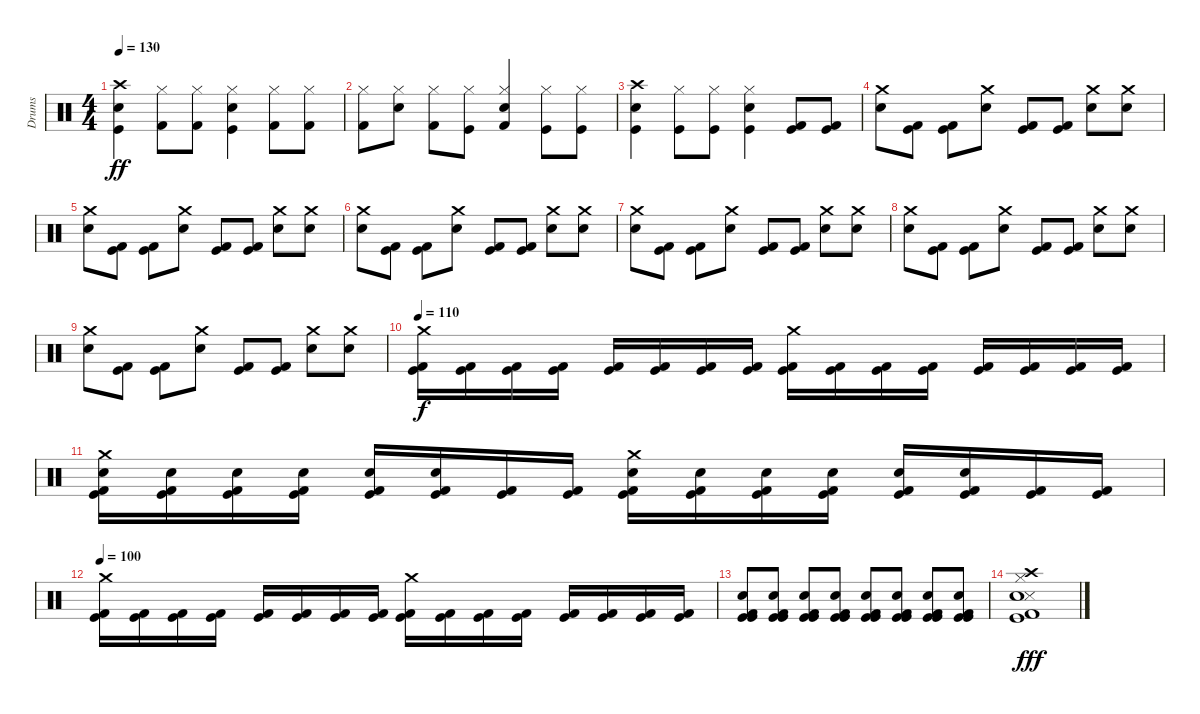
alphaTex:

\track ("Drums" "Drums") {instrument percussion}
\staff {score}
\articulation defaults
\ts (4 4)
\tempo 130
\clef neutral
\ks c
("Crash high (hit)" "Snare (hit) 2" "Kick (hit)").4{dy ff} ("Hi-Hat (closed)" "Kick (hit) 2").8 ("Hi-Hat (closed)" "Kick (hit) 2").8 ("Hi-Hat (closed)" "Snare (hit) 2" "Kick (hit)").4 ("Hi-Hat (closed)" "Kick (hit) 2").8 ("Hi-Hat (closed)" "Kick (hit) 2").8 |
("Hi-Hat (closed)" "Kick (hit) 2").8 ("Hi-Hat (closed)" "Snare (hit) 2").8 ("Hi-Hat (closed)" "Kick (hit) 2").8 ("Hi-Hat (closed)" "Kick (hit)").8 ("Hi-Hat (closed)" "Kick (hit) 2" "Snare (hit) 2").4 ("Hi-Hat (closed)" "Kick (hit)").8 ("Hi-Hat (closed)" "Kick (hit)").8 |
("Crash high (hit)" "Snare (hit) 2" "Kick (hit)").4 ("Hi-Hat (closed)" "Kick (hit)").8 ("Hi-Hat (closed)" "Kick (hit)").8 ("Hi-Hat (closed)" "Snare (hit) 2" "Kick (hit)").4 ("Kick (hit) 2" "Kick (hit)").8 ("Kick (hit) 2" "Kick (hit)").8 |
("Crash medium (hit)" "Snare (hit) 2").8 ("Kick (hit) 2" "Kick (hit)").8 ("Kick (hit) 2" "Kick (hit)").8 ("Crash medium (hit)" "Snare (hit) 2").8 ("Kick (hit) 2" "Kick (hit)").8 ("Kick (hit) 2" "Kick (hit)").8 ("Crash medium (hit)" "Snare (hit) 2").8 ("Crash medium (hit)" "Snare (hit) 2").8 |
("Crash medium (hit)" "Snare (hit) 2").8 ("Kick (hit) 2" "Kick (hit)").8 ("Kick (hit) 2" "Kick (hit)").8 ("Crash medium (hit)" "Snare (hit) 2").8 ("Kick (hit) 2" "Kick (hit)").8 ("Kick (hit) 2" "Kick (hit)").8 ("Crash medium (hit)" "Snare (hit) 2").8 ("Crash medium (hit)" "Snare (hit) 2").8 |
("Crash medium (hit)" "Snare (hit) 2").8 ("Kick (hit) 2" "Kick (hit)").8 ("Kick (hit) 2" "Kick (hit)").8 ("Crash medium (hit)" "Snare (hit) 2").8 ("Kick (hit) 2" "Kick (hit)").8 ("Kick (hit) 2" "Kick (hit)").8 ("Crash medium (hit)" "Snare (hit) 2").8 ("Crash medium (hit)" "Snare (hit) 2").8 |
("Crash medium (hit)" "Snare (hit) 2").8 ("Kick (hit) 2" "Kick (hit)").8 ("Kick (hit) 2" "Kick (hit)").8 ("Crash medium (hit)" "Snare (hit) 2").8 ("Kick (hit) 2" "Kick (hit)").8 ("Kick (hit) 2" "Kick (hit)").8 ("Crash medium (hit)" "Snare (hit) 2").8 ("Crash medium (hit)" "Snare (hit) 2").8 |
("Crash medium (hit)" "Snare (hit) 2").8 ("Kick (hit) 2" "Kick (hit)").8 ("Kick (hit) 2" "Kick (hit)").8 ("Crash medium (hit)" "Snare (hit) 2").8 ("Kick (hit) 2" "Kick (hit)").8 ("Kick (hit) 2" "Kick (hit)").8 ("Crash medium (hit)" "Snare (hit) 2").8 ("Crash medium (hit)" "Snare (hit) 2").8 |
("Crash medium (hit)" "Snare (hit) 2").8 ("Kick (hit) 2" "Kick (hit)").8 ("Kick (hit) 2" "Kick (hit)").8 ("Crash medium (hit)" "Snare (hit) 2").8 ("Kick (hit) 2" "Kick (hit)").8 ("Kick (hit) 2" "Kick (hit)").8 ("Crash medium (hit)" "Snare (hit) 2").8 ("Crash medium (hit)" "Snare (hit) 2").8 |
\tempo 110
("Crash medium (hit)" "Kick (hit)" "Kick (hit) 2").16{dy f} ("Kick (hit)" "Kick (hit) 2").16 ("Kick (hit)" "Kick (hit) 2").16 ("Kick (hit)" "Kick (hit) 2").16 ("Kick (hit)" "Kick (hit) 2").16 ("Kick (hit)" "Kick (hit) 2").16 ("Kick (hit)" "Kick (hit) 2").16 ("Kick (hit)" "Kick (hit) 2").16 ("Crash medium (hit)" "Kick (hit)" "Kick (hit) 2").16 ("Kick (hit)" "Kick (hit) 2").16 ("Kick (hit)" "Kick (hit) 2").16 ("Kick (hit)" "Kick (hit) 2").16 ("Kick (hit)" "Kick (hit) 2").16 ("Kick (hit)" "Kick (hit) 2").16 ("Kick (hit)" "Kick (hit) 2").16 ("Kick (hit)" "Kick (hit) 2").16 |
("Crash medium (hit)" "Snare (hit) 2" "Kick (hit)" "Kick (hit) 2").16 ("Snare (hit) 2" "Kick (hit)" "Kick (hit) 2").16 ("Snare (hit) 2" "Kick (hit)" "Kick (hit) 2").16 ("Snare (hit) 2" "Kick (hit)" "Kick (hit) 2").16 ("Snare (hit) 2" "Kick (hit)" "Kick (hit) 2").16 ("Snare (hit) 2" "Kick (hit)" "Kick (hit) 2").16 ("Kick (hit)" "Kick (hit) 2").16 ("Kick (hit)" "Kick (hit) 2").16 ("Crash medium (hit)" "Snare (hit) 2" "Kick (hit)" "Kick (hit) 2").16 ("Snare (hit) 2" "Kick (hit)" "Kick (hit) 2").16 ("Snare (hit) 2" "Kick (hit)" "Kick (hit) 2").16 ("Snare (hit) 2" "Kick (hit)" "Kick (hit) 2").16 ("Snare (hit) 2" "Kick (hit)" "Kick (hit) 2").16 ("Snare (hit) 2" "Kick (hit)" "Kick (hit) 2").16 ("Kick (hit)" "Kick (hit) 2").16 ("Kick (hit)" "Kick (hit) 2").16 |
\tempo 100
("Crash medium (hit)" "Kick (hit)" "Kick (hit) 2").16 ("Kick (hit)" "Kick (hit) 2").16 ("Kick (hit)" "Kick (hit) 2").16 ("Kick (hit)" "Kick (hit) 2").16 ("Kick (hit)" "Kick (hit) 2").16 ("Kick (hit)" "Kick (hit) 2").16 ("Kick (hit)" "Kick (hit) 2").16 ("Kick (hit)" "Kick (hit) 2").16 ("Crash medium (hit)" "Kick (hit)" "Kick (hit) 2").16 ("Kick (hit)" "Kick (hit) 2").16 ("Kick (hit)" "Kick (hit) 2").16 ("Kick (hit)" "Kick (hit) 2").16 ("Kick (hit)" "Kick (hit) 2").16 ("Kick (hit)" "Kick (hit) 2").16 ("Kick (hit)" "Kick (hit) 2").16 ("Kick (hit)" "Kick (hit) 2").16 |
("Snare (hit) 2" "Kick (hit)" "Kick (hit)" "Kick (hit) 2").8 ("Snare (hit) 2" "Kick (hit)" "Kick (hit)" "Kick (hit) 2").8 ("Snare (hit) 2" "Kick (hit)" "Kick (hit)" "Kick (hit) 2").8 ("Snare (hit) 2" "Kick (hit)" "Kick (hit)" "Kick (hit) 2").8 ("Snare (hit) 2" "Kick (hit)" "Kick (hit)" "Kick (hit) 2").8 ("Snare (hit) 2" "Kick (hit)" "Kick (hit)" "Kick (hit) 2").8 ("Snare (hit) 2" "Kick (hit)" "Kick (hit)" "Kick (hit) 2").8 ("Snare (hit) 2" "Kick (hit)" "Kick (hit)" "Kick (hit) 2").8 |
("Crash high (hit)" "Hi-Hat (closed)" "Snare (side stick) 3" "Snare (hit) 2" "Kick (hit) 2" "Kick (hit)").1{dy fff}
